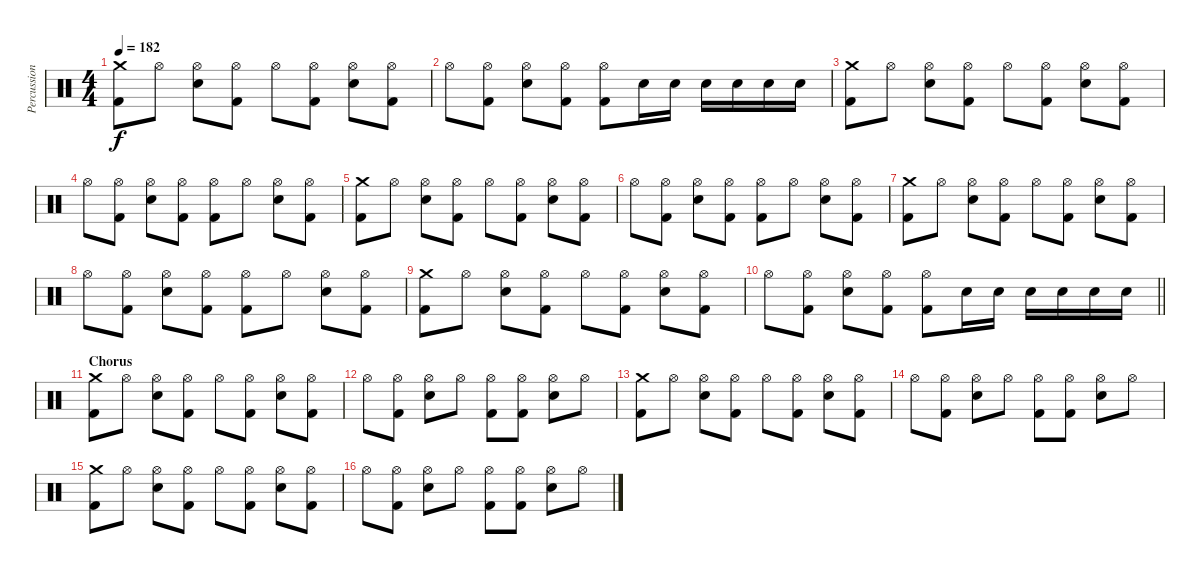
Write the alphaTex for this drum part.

\track ("Percussion" "Percussion") {instrument percussion}
\staff {score}
\articulation defaults
\ts (4 4)
\tempo 182
\clef neutral
\ks c
("Crash medium (hit)" "Kick (hit) 2").8{dy f} "Hi-Hat (open)".8 ("Hi-Hat (open)" "Electric Snare (hit)").8 ("Hi-Hat (open)" "Kick (hit) 2").8 "Hi-Hat (open)".8 ("Hi-Hat (open)" "Kick (hit) 2").8 ("Hi-Hat (open)" "Electric Snare (hit)").8 ("Hi-Hat (open)" "Kick (hit) 2").8 |
"Hi-Hat (open)".8 ("Hi-Hat (open)" "Kick (hit) 2").8 ("Hi-Hat (open)" "Electric Snare (hit)").8 ("Hi-Hat (open)" "Kick (hit) 2").8 ("Hi-Hat (open)" "Kick (hit) 2").8 "Electric Snare (hit)".16 "Electric Snare (hit)".16 "Electric Snare (hit)".16 "Electric Snare (hit)".16 "Electric Snare (hit)".16 "Electric Snare (hit)".16 |
("Crash medium (hit)" "Kick (hit) 2").8 "Hi-Hat (open)".8 ("Hi-Hat (open)" "Electric Snare (hit)").8 ("Hi-Hat (open)" "Kick (hit) 2").8 "Hi-Hat (open)".8 ("Hi-Hat (open)" "Kick (hit) 2").8 ("Hi-Hat (open)" "Electric Snare (hit)").8 ("Hi-Hat (open)" "Kick (hit) 2").8 |
"Hi-Hat (open)".8 ("Hi-Hat (open)" "Kick (hit) 2").8 ("Hi-Hat (open)" "Electric Snare (hit)").8 ("Hi-Hat (open)" "Kick (hit) 2").8 ("Hi-Hat (open)" "Kick (hit) 2").8 "Hi-Hat (open)".8 ("Hi-Hat (open)" "Electric Snare (hit)").8 ("Hi-Hat (open)" "Kick (hit) 2").8 |
("Crash medium (hit)" "Kick (hit) 2").8 "Hi-Hat (open)".8 ("Hi-Hat (open)" "Electric Snare (hit)").8 ("Hi-Hat (open)" "Kick (hit) 2").8 "Hi-Hat (open)".8 ("Hi-Hat (open)" "Kick (hit) 2").8 ("Hi-Hat (open)" "Electric Snare (hit)").8 ("Hi-Hat (open)" "Kick (hit) 2").8 |
"Hi-Hat (open)".8 ("Hi-Hat (open)" "Kick (hit) 2").8 ("Hi-Hat (open)" "Electric Snare (hit)").8 ("Hi-Hat (open)" "Kick (hit) 2").8 ("Hi-Hat (open)" "Kick (hit) 2").8 "Hi-Hat (open)".8 ("Hi-Hat (open)" "Electric Snare (hit)").8 ("Hi-Hat (open)" "Kick (hit) 2").8 |
("Crash medium (hit)" "Kick (hit) 2").8 "Hi-Hat (open)".8 ("Hi-Hat (open)" "Electric Snare (hit)").8 ("Hi-Hat (open)" "Kick (hit) 2").8 "Hi-Hat (open)".8 ("Hi-Hat (open)" "Kick (hit) 2").8 ("Hi-Hat (open)" "Electric Snare (hit)").8 ("Hi-Hat (open)" "Kick (hit) 2").8 |
"Hi-Hat (open)".8 ("Hi-Hat (open)" "Kick (hit) 2").8 ("Hi-Hat (open)" "Electric Snare (hit)").8 ("Hi-Hat (open)" "Kick (hit) 2").8 ("Hi-Hat (open)" "Kick (hit) 2").8 "Hi-Hat (open)".8 ("Hi-Hat (open)" "Electric Snare (hit)").8 ("Hi-Hat (open)" "Kick (hit) 2").8 |
("Crash medium (hit)" "Kick (hit) 2").8 "Hi-Hat (open)".8 ("Hi-Hat (open)" "Electric Snare (hit)").8 ("Hi-Hat (open)" "Kick (hit) 2").8 "Hi-Hat (open)".8 ("Hi-Hat (open)" "Kick (hit) 2").8 ("Hi-Hat (open)" "Electric Snare (hit)").8 ("Hi-Hat (open)" "Kick (hit) 2").8 |
\barLineRight lightlight "Hi-Hat (open)".8
("Hi-Hat (open)" "Kick (hit) 2").8 ("Hi-Hat (open)" "Electric Snare (hit)").8 ("Hi-Hat (open)" "Kick (hit) 2").8 ("Hi-Hat (open)" "Kick (hit) 2").8 "Electric Snare (hit)".16 "Electric Snare (hit)".16 "Electric Snare (hit)".16 "Electric Snare (hit)".16 "Electric Snare (hit)".16 "Electric Snare (hit)".16 |
\section ("" "Chorus")
("Crash medium (hit)" "Kick (hit) 2").8 "Hi-Hat (open)".8 ("Hi-Hat (open)" "Electric Snare (hit)").8 ("Hi-Hat (open)" "Kick (hit) 2").8 "Hi-Hat (open)".8 ("Hi-Hat (open)" "Kick (hit) 2").8 ("Hi-Hat (open)" "Electric Snare (hit)").8 ("Hi-Hat (open)" "Kick (hit) 2").8 |
"Hi-Hat (open)".8 ("Hi-Hat (open)" "Kick (hit) 2").8 ("Hi-Hat (open)" "Electric Snare (hit)").8 "Hi-Hat (open)".8 ("Hi-Hat (open)" "Kick (hit) 2").8 ("Hi-Hat (open)" "Kick (hit) 2").8 ("Hi-Hat (open)" "Electric Snare (hit)").8 "Hi-Hat (open)".8 |
("Crash medium (hit)" "Kick (hit) 2").8 "Hi-Hat (open)".8 ("Hi-Hat (open)" "Electric Snare (hit)").8 ("Hi-Hat (open)" "Kick (hit) 2").8 "Hi-Hat (open)".8 ("Hi-Hat (open)" "Kick (hit) 2").8 ("Hi-Hat (open)" "Electric Snare (hit)").8 ("Hi-Hat (open)" "Kick (hit) 2").8 |
"Hi-Hat (open)".8 ("Hi-Hat (open)" "Kick (hit) 2").8 ("Hi-Hat (open)" "Electric Snare (hit)").8 "Hi-Hat (open)".8 ("Hi-Hat (open)" "Kick (hit) 2").8 ("Hi-Hat (open)" "Kick (hit) 2").8 ("Hi-Hat (open)" "Electric Snare (hit)").8 "Hi-Hat (open)".8 |
("Crash medium (hit)" "Kick (hit) 2").8 "Hi-Hat (open)".8 ("Hi-Hat (open)" "Electric Snare (hit)").8 ("Hi-Hat (open)" "Kick (hit) 2").8 "Hi-Hat (open)".8 ("Hi-Hat (open)" "Kick (hit) 2").8 ("Hi-Hat (open)" "Electric Snare (hit)").8 ("Hi-Hat (open)" "Kick (hit) 2").8 |
"Hi-Hat (open)".8 ("Hi-Hat (open)" "Kick (hit) 2").8 ("Hi-Hat (open)" "Electric Snare (hit)").8 "Hi-Hat (open)".8 ("Hi-Hat (open)" "Kick (hit) 2").8 ("Hi-Hat (open)" "Kick (hit) 2").8 ("Hi-Hat (open)" "Electric Snare (hit)").8 "Hi-Hat (open)".8
